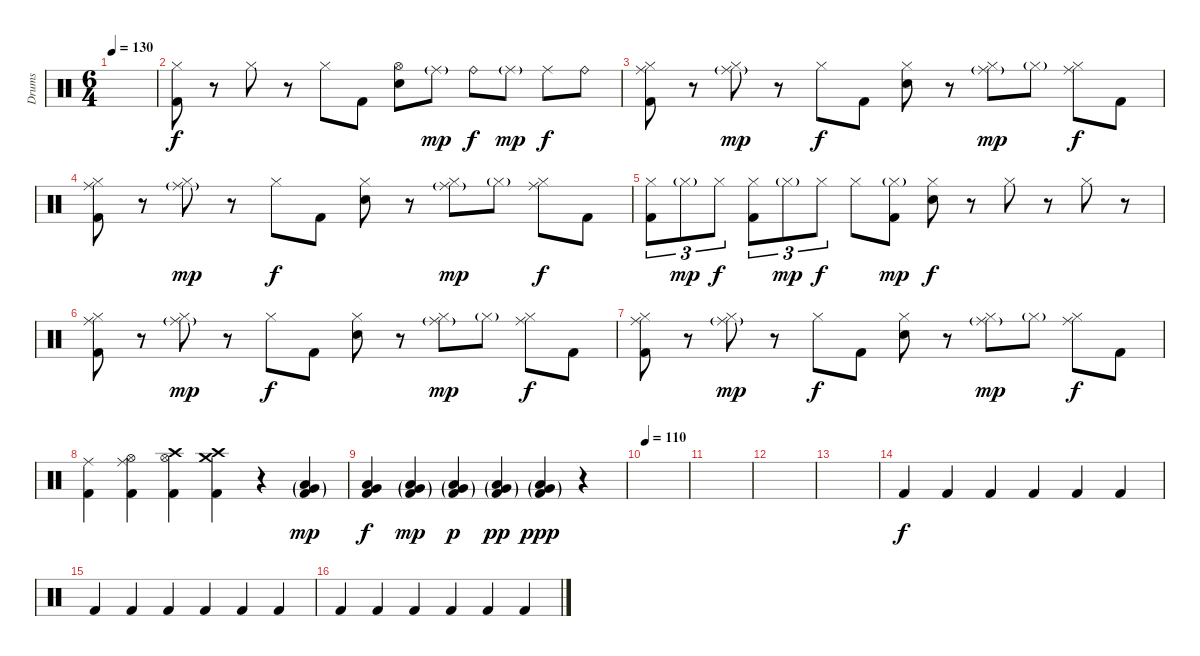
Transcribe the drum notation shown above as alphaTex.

\track ("Drums" "Drums") {instrument percussion}
\staff {score}
\articulation defaults
\ts (6 4)
\tempo 130
\clef neutral
\ks c
|
("Hi-Hat (closed)" "Kick (hit) 2").8{dy f} r.8 "Hi-Hat (closed)".8 r.8 "Hi-Hat (closed)".8 "Kick (hit) 2".8 ("Hi-Hat (open)" "Electric Snare (hit)").8 "Ride (middle)"{g}.8{dy mp} "Ride (bell)".8{dy f} "Ride (middle)"{g}.8{dy mp} "Ride (middle)".8{dy f} "Ride (bell)".8 |
("Ride (middle)" "Hi-Hat (closed)" "Kick (hit) 2").8 r.8 ("Ride (middle)"{g} "Hi-Hat (closed)").8{dy mp} r.8 "Hi-Hat (closed)".8{dy f} "Kick (hit) 2".8 ("Hi-Hat (closed)" "Electric Snare (hit)").8 r.8 ("Ride (middle)"{g} "Hi-Hat (closed)").8{dy mp} "Hi-Hat (closed)"{g}.8 ("Ride (middle)" "Hi-Hat (closed)").8{dy f} "Kick (hit) 2".8 |
("Ride (middle)" "Hi-Hat (closed)" "Kick (hit) 2").8 r.8 ("Ride (middle)"{g} "Hi-Hat (closed)").8{dy mp} r.8 "Hi-Hat (closed)".8{dy f} "Kick (hit) 2".8 ("Hi-Hat (closed)" "Electric Snare (hit)").8 r.8 ("Ride (middle)"{g} "Hi-Hat (closed)").8{dy mp} "Hi-Hat (closed)"{g}.8 ("Ride (middle)" "Hi-Hat (closed)").8{dy f} "Kick (hit) 2".8 |
("Hi-Hat (closed)" "Kick (hit) 2").8{tu (3 2)} "Hi-Hat (closed)"{g}.8{tu (3 2) dy mp} "Hi-Hat (closed)".8{tu (3 2) dy f} ("Hi-Hat (closed)" "Kick (hit) 2").8{tu (3 2)} "Hi-Hat (closed)"{g}.8{tu (3 2) dy mp} "Hi-Hat (closed)".8{tu (3 2) dy f} "Hi-Hat (closed)".8 ("Hi-Hat (closed)"{g} "Kick (hit) 2").8{dy mp} ("Hi-Hat (closed)" "Electric Snare (hit)").8{dy f} r.8 "Hi-Hat (closed)".8 r.8 "Hi-Hat (closed)".8 r.8 |
("Ride (middle)" "Hi-Hat (closed)" "Kick (hit) 2").8 r.8 ("Ride (middle)"{g} "Hi-Hat (closed)").8{dy mp} r.8 "Hi-Hat (closed)".8{dy f} "Kick (hit) 2".8 ("Hi-Hat (closed)" "Electric Snare (hit)").8 r.8 ("Ride (middle)"{g} "Hi-Hat (closed)").8{dy mp} "Hi-Hat (closed)"{g}.8 ("Ride (middle)" "Hi-Hat (closed)").8{dy f} "Kick (hit) 2".8 |
("Ride (middle)" "Hi-Hat (closed)" "Kick (hit) 2").8 r.8 ("Ride (middle)"{g} "Hi-Hat (closed)").8{dy mp} r.8 "Hi-Hat (closed)".8{dy f} "Kick (hit) 2".8 ("Hi-Hat (closed)" "Electric Snare (hit)").8 r.8 ("Ride (middle)"{g} "Hi-Hat (closed)").8{dy mp} "Hi-Hat (closed)"{g}.8 ("Ride (middle)" "Hi-Hat (closed)").8{dy f} "Kick (hit) 2".8 |
("Ride (middle)" "Kick (hit) 2").4 ("Ride (middle)" "Hi-Hat (open)" "Kick (hit) 2").4 ("Hi-Hat (open)" "Crash high (hit)" "Kick (hit) 2").4 ("Crash medium (hit)" "Crash high (hit)" "Kick (hit) 2").4 r.4 ("Low Floor Tom (hit)"{g} "Very Low Tom (hit)"{g} "Kick (hit) 2"{g}).4{dy mp} |
("Low Floor Tom (hit)" "Very Low Tom (hit)" "Kick (hit) 2").4{dy f} ("Low Floor Tom (hit)"{g} "Very Low Tom (hit)"{g} "Kick (hit) 2"{g}).4{dy mp} ("Low Floor Tom (hit)"{g} "Very Low Tom (hit)"{g} "Kick (hit) 2"{g}).4{dy p} ("Low Floor Tom (hit)"{g} "Very Low Tom (hit)"{g} "Kick (hit) 2"{g}).4{dy pp} ("Low Floor Tom (hit)"{g} "Very Low Tom (hit)"{g} "Kick (hit) 2"{g}).4{dy ppp} r.4 |
\tempo 110
|
|
|
|
"Kick (hit) 2".4{dy f} "Kick (hit) 2".4 "Kick (hit) 2".4 "Kick (hit) 2".4 "Kick (hit) 2".4 "Kick (hit) 2".4 |
"Kick (hit) 2".4 "Kick (hit) 2".4 "Kick (hit) 2".4 "Kick (hit) 2".4 "Kick (hit) 2".4 "Kick (hit) 2".4 |
"Kick (hit) 2".4 "Kick (hit) 2".4 "Kick (hit) 2".4 "Kick (hit) 2".4 "Kick (hit) 2".4 "Kick (hit) 2".4
